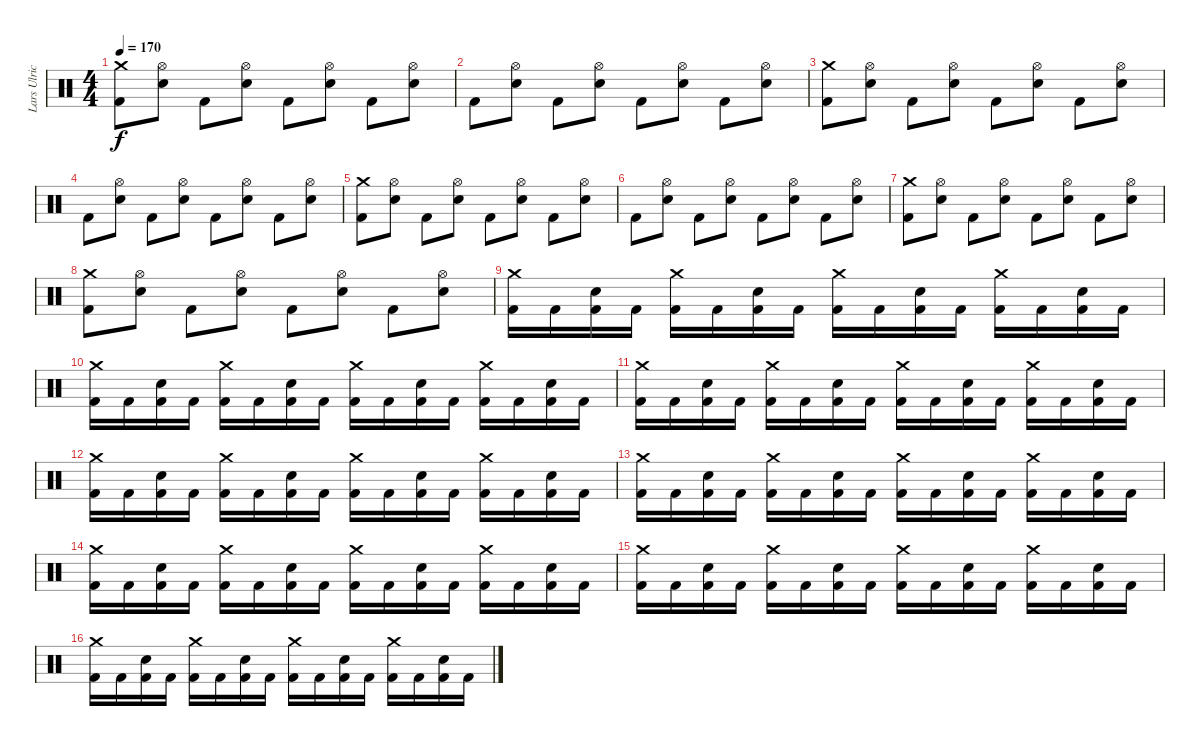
\track ("Lars Ulrich" "Lars Ulric") {instrument percussion}
\staff {score}
\articulation defaults
\ts (4 4)
\tempo 170
\clef neutral
\ks c
("Crash medium (hit)" "Kick (hit) 2").8{dy f} ("Hi-Hat (open)" "Electric Snare (hit)").8 "Kick (hit) 2".8 ("Hi-Hat (open)" "Electric Snare (hit)").8 "Kick (hit) 2".8 ("Hi-Hat (open)" "Electric Snare (hit)").8 "Kick (hit) 2".8 ("Hi-Hat (open)" "Electric Snare (hit)").8 |
"Kick (hit) 2".8 ("Hi-Hat (open)" "Electric Snare (hit)").8 "Kick (hit) 2".8 ("Hi-Hat (open)" "Electric Snare (hit)").8 "Kick (hit) 2".8 ("Hi-Hat (open)" "Electric Snare (hit)").8 "Kick (hit) 2".8 ("Hi-Hat (open)" "Electric Snare (hit)").8 |
("Crash medium (hit)" "Kick (hit) 2").8 ("Hi-Hat (open)" "Electric Snare (hit)").8 "Kick (hit) 2".8 ("Hi-Hat (open)" "Electric Snare (hit)").8 "Kick (hit) 2".8 ("Hi-Hat (open)" "Electric Snare (hit)").8 "Kick (hit) 2".8 ("Hi-Hat (open)" "Electric Snare (hit)").8 |
"Kick (hit) 2".8 ("Hi-Hat (open)" "Electric Snare (hit)").8 "Kick (hit) 2".8 ("Hi-Hat (open)" "Electric Snare (hit)").8 "Kick (hit) 2".8 ("Hi-Hat (open)" "Electric Snare (hit)").8 "Kick (hit) 2".8 ("Hi-Hat (open)" "Electric Snare (hit)").8 |
("Crash medium (hit)" "Kick (hit) 2").8 ("Hi-Hat (open)" "Electric Snare (hit)").8 "Kick (hit) 2".8 ("Hi-Hat (open)" "Electric Snare (hit)").8 "Kick (hit) 2".8 ("Hi-Hat (open)" "Electric Snare (hit)").8 "Kick (hit) 2".8 ("Hi-Hat (open)" "Electric Snare (hit)").8 |
"Kick (hit) 2".8 ("Hi-Hat (open)" "Electric Snare (hit)").8 "Kick (hit) 2".8 ("Hi-Hat (open)" "Electric Snare (hit)").8 "Kick (hit) 2".8 ("Hi-Hat (open)" "Electric Snare (hit)").8 "Kick (hit) 2".8 ("Hi-Hat (open)" "Electric Snare (hit)").8 |
("Crash medium (hit)" "Kick (hit) 2").8 ("Hi-Hat (open)" "Electric Snare (hit)").8 "Kick (hit) 2".8 ("Hi-Hat (open)" "Electric Snare (hit)").8 "Kick (hit) 2".8 ("Hi-Hat (open)" "Electric Snare (hit)").8 "Kick (hit) 2".8 ("Hi-Hat (open)" "Electric Snare (hit)").8 |
("Crash medium (hit)" "Kick (hit) 2").8 ("Hi-Hat (open)" "Electric Snare (hit)").8 "Kick (hit) 2".8 ("Hi-Hat (open)" "Electric Snare (hit)").8 "Kick (hit) 2".8 ("Hi-Hat (open)" "Electric Snare (hit)").8 "Kick (hit) 2".8 ("Hi-Hat (open)" "Electric Snare (hit)").8 |
("Crash medium (hit)" "Kick (hit) 2").16 "Kick (hit) 2".16 ("Electric Snare (hit)" "Kick (hit) 2").16 "Kick (hit) 2".16 ("Crash medium (hit)" "Kick (hit) 2").16 "Kick (hit) 2".16 ("Electric Snare (hit)" "Kick (hit) 2").16 "Kick (hit) 2".16 ("Crash medium (hit)" "Kick (hit) 2").16 "Kick (hit) 2".16 ("Electric Snare (hit)" "Kick (hit) 2").16 "Kick (hit) 2".16 ("Crash medium (hit)" "Kick (hit) 2").16 "Kick (hit) 2".16 ("Electric Snare (hit)" "Kick (hit) 2").16 "Kick (hit) 2".16 |
("Crash medium (hit)" "Kick (hit) 2").16 "Kick (hit) 2".16 ("Electric Snare (hit)" "Kick (hit) 2").16 "Kick (hit) 2".16 ("Crash medium (hit)" "Kick (hit) 2").16 "Kick (hit) 2".16 ("Electric Snare (hit)" "Kick (hit) 2").16 "Kick (hit) 2".16 ("Crash medium (hit)" "Kick (hit) 2").16 "Kick (hit) 2".16 ("Electric Snare (hit)" "Kick (hit) 2").16 "Kick (hit) 2".16 ("Crash medium (hit)" "Kick (hit) 2").16 "Kick (hit) 2".16 ("Electric Snare (hit)" "Kick (hit) 2").16 "Kick (hit) 2".16 |
("Crash medium (hit)" "Kick (hit) 2").16 "Kick (hit) 2".16 ("Electric Snare (hit)" "Kick (hit) 2").16 "Kick (hit) 2".16 ("Crash medium (hit)" "Kick (hit) 2").16 "Kick (hit) 2".16 ("Electric Snare (hit)" "Kick (hit) 2").16 "Kick (hit) 2".16 ("Crash medium (hit)" "Kick (hit) 2").16 "Kick (hit) 2".16 ("Electric Snare (hit)" "Kick (hit) 2").16 "Kick (hit) 2".16 ("Crash medium (hit)" "Kick (hit) 2").16 "Kick (hit) 2".16 ("Electric Snare (hit)" "Kick (hit) 2").16 "Kick (hit) 2".16 |
("Crash medium (hit)" "Kick (hit) 2").16 "Kick (hit) 2".16 ("Electric Snare (hit)" "Kick (hit) 2").16 "Kick (hit) 2".16 ("Crash medium (hit)" "Kick (hit) 2").16 "Kick (hit) 2".16 ("Electric Snare (hit)" "Kick (hit) 2").16 "Kick (hit) 2".16 ("Crash medium (hit)" "Kick (hit) 2").16 "Kick (hit) 2".16 ("Electric Snare (hit)" "Kick (hit) 2").16 "Kick (hit) 2".16 ("Crash medium (hit)" "Kick (hit) 2").16 "Kick (hit) 2".16 ("Electric Snare (hit)" "Kick (hit) 2").16 "Kick (hit) 2".16 |
("Crash medium (hit)" "Kick (hit) 2").16 "Kick (hit) 2".16 ("Electric Snare (hit)" "Kick (hit) 2").16 "Kick (hit) 2".16 ("Crash medium (hit)" "Kick (hit) 2").16 "Kick (hit) 2".16 ("Electric Snare (hit)" "Kick (hit) 2").16 "Kick (hit) 2".16 ("Crash medium (hit)" "Kick (hit) 2").16 "Kick (hit) 2".16 ("Electric Snare (hit)" "Kick (hit) 2").16 "Kick (hit) 2".16 ("Crash medium (hit)" "Kick (hit) 2").16 "Kick (hit) 2".16 ("Electric Snare (hit)" "Kick (hit) 2").16 "Kick (hit) 2".16 |
("Crash medium (hit)" "Kick (hit) 2").16 "Kick (hit) 2".16 ("Electric Snare (hit)" "Kick (hit) 2").16 "Kick (hit) 2".16 ("Crash medium (hit)" "Kick (hit) 2").16 "Kick (hit) 2".16 ("Electric Snare (hit)" "Kick (hit) 2").16 "Kick (hit) 2".16 ("Crash medium (hit)" "Kick (hit) 2").16 "Kick (hit) 2".16 ("Electric Snare (hit)" "Kick (hit) 2").16 "Kick (hit) 2".16 ("Crash medium (hit)" "Kick (hit) 2").16 "Kick (hit) 2".16 ("Electric Snare (hit)" "Kick (hit) 2").16 "Kick (hit) 2".16 |
("Crash medium (hit)" "Kick (hit) 2").16 "Kick (hit) 2".16 ("Electric Snare (hit)" "Kick (hit) 2").16 "Kick (hit) 2".16 ("Crash medium (hit)" "Kick (hit) 2").16 "Kick (hit) 2".16 ("Electric Snare (hit)" "Kick (hit) 2").16 "Kick (hit) 2".16 ("Crash medium (hit)" "Kick (hit) 2").16 "Kick (hit) 2".16 ("Electric Snare (hit)" "Kick (hit) 2").16 "Kick (hit) 2".16 ("Crash medium (hit)" "Kick (hit) 2").16 "Kick (hit) 2".16 ("Electric Snare (hit)" "Kick (hit) 2").16 "Kick (hit) 2".16 |
("Crash medium (hit)" "Kick (hit) 2").16 "Kick (hit) 2".16 ("Electric Snare (hit)" "Kick (hit) 2").16 "Kick (hit) 2".16 ("Crash medium (hit)" "Kick (hit) 2").16 "Kick (hit) 2".16 ("Electric Snare (hit)" "Kick (hit) 2").16 "Kick (hit) 2".16 ("Crash medium (hit)" "Kick (hit) 2").16 "Kick (hit) 2".16 ("Electric Snare (hit)" "Kick (hit) 2").16 "Kick (hit) 2".16 ("Crash medium (hit)" "Kick (hit) 2").16 "Kick (hit) 2".16 ("Electric Snare (hit)" "Kick (hit) 2").16 "Kick (hit) 2".16
